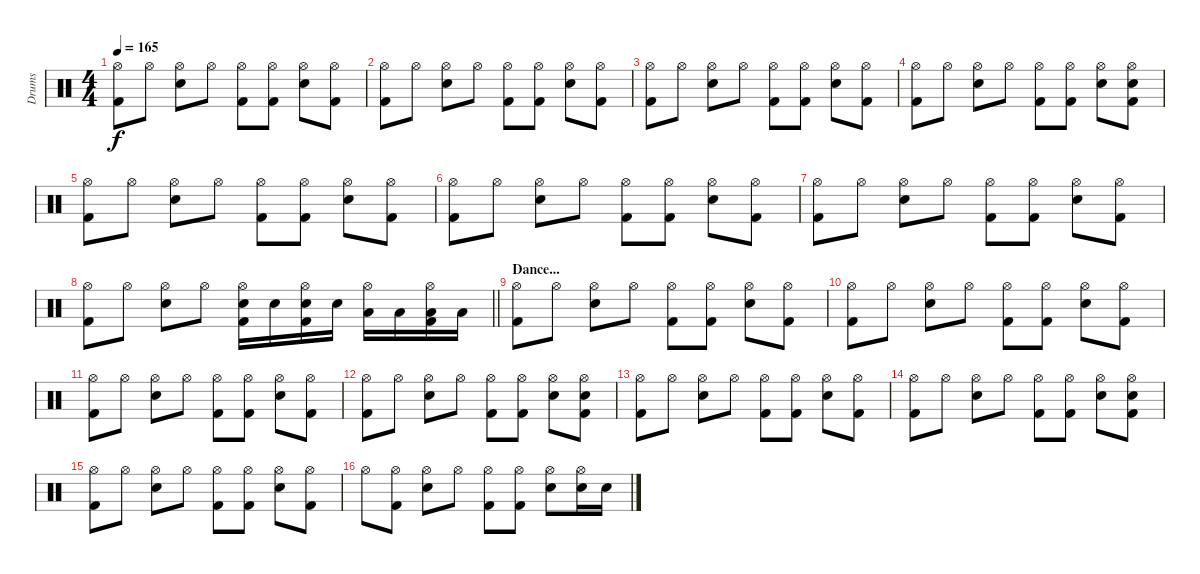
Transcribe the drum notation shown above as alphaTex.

\track ("Drums" "Drums") {instrument percussion}
\staff {score}
\articulation defaults
\ts (4 4)
\tempo 165
\clef neutral
\ks c
("Hi-Hat (open)" "Kick (hit) 2").8{dy f} "Hi-Hat (open)".8 ("Hi-Hat (open)" "Electric Snare (hit)").8 "Hi-Hat (open)".8 ("Hi-Hat (open)" "Kick (hit) 2").8 ("Hi-Hat (open)" "Kick (hit) 2").8 ("Hi-Hat (open)" "Electric Snare (hit)").8 ("Hi-Hat (open)" "Kick (hit) 2").8 |
("Hi-Hat (open)" "Kick (hit) 2").8 "Hi-Hat (open)".8 ("Hi-Hat (open)" "Electric Snare (hit)").8 "Hi-Hat (open)".8 ("Hi-Hat (open)" "Kick (hit) 2").8 ("Hi-Hat (open)" "Kick (hit) 2").8 ("Hi-Hat (open)" "Electric Snare (hit)").8 ("Hi-Hat (open)" "Kick (hit) 2").8 |
("Hi-Hat (open)" "Kick (hit) 2").8 "Hi-Hat (open)".8 ("Hi-Hat (open)" "Electric Snare (hit)").8 "Hi-Hat (open)".8 ("Hi-Hat (open)" "Kick (hit) 2").8 ("Hi-Hat (open)" "Kick (hit) 2").8 ("Hi-Hat (open)" "Electric Snare (hit)").8 ("Hi-Hat (open)" "Kick (hit) 2").8 |
("Hi-Hat (open)" "Kick (hit) 2").8 "Hi-Hat (open)".8 ("Hi-Hat (open)" "Electric Snare (hit)").8 "Hi-Hat (open)".8 ("Hi-Hat (open)" "Kick (hit) 2").8 ("Hi-Hat (open)" "Kick (hit) 2").8 ("Hi-Hat (open)" "Electric Snare (hit)").8 ("Hi-Hat (open)" "Electric Snare (hit)" "Kick (hit) 2").8 |
("Hi-Hat (open)" "Kick (hit) 2").8 "Hi-Hat (open)".8 ("Hi-Hat (open)" "Electric Snare (hit)").8 "Hi-Hat (open)".8 ("Hi-Hat (open)" "Kick (hit) 2").8 ("Hi-Hat (open)" "Kick (hit) 2").8 ("Hi-Hat (open)" "Electric Snare (hit)").8 ("Hi-Hat (open)" "Kick (hit) 2").8 |
("Hi-Hat (open)" "Kick (hit) 2").8 "Hi-Hat (open)".8 ("Hi-Hat (open)" "Electric Snare (hit)").8 "Hi-Hat (open)".8 ("Hi-Hat (open)" "Kick (hit) 2").8 ("Hi-Hat (open)" "Kick (hit) 2").8 ("Hi-Hat (open)" "Electric Snare (hit)").8 ("Hi-Hat (open)" "Kick (hit) 2").8 |
("Hi-Hat (open)" "Kick (hit) 2").8 "Hi-Hat (open)".8 ("Hi-Hat (open)" "Electric Snare (hit)").8 "Hi-Hat (open)".8 ("Hi-Hat (open)" "Kick (hit) 2").8 ("Hi-Hat (open)" "Kick (hit) 2").8 ("Hi-Hat (open)" "Electric Snare (hit)").8 ("Hi-Hat (open)" "Kick (hit) 2").8 |
\barLineRight lightlight
("Hi-Hat (open)" "Kick (hit) 2").8 "Hi-Hat (open)".8 ("Hi-Hat (open)" "Electric Snare (hit)").8 "Hi-Hat (open)".8 ("Hi-Hat (open)" "Electric Snare (hit)" "Kick (hit) 2").16 "Electric Snare (hit)".16 ("Hi-Hat (open)" "Electric Snare (hit)" "Kick (hit) 2").16 "Electric Snare (hit)".16 ("Hi-Hat (open)" "Low Floor Tom (hit)").16 "Low Floor Tom (hit)".16 ("Hi-Hat (open)" "Low Floor Tom (hit)" "Kick (hit) 2").16 "Low Floor Tom (hit)".16 |
\section ("" "Dance...")
("Hi-Hat (open)" "Kick (hit) 2").8 "Hi-Hat (open)".8 ("Hi-Hat (open)" "Electric Snare (hit)").8 "Hi-Hat (open)".8 ("Hi-Hat (open)" "Kick (hit) 2").8 ("Hi-Hat (open)" "Kick (hit) 2").8 ("Hi-Hat (open)" "Electric Snare (hit)").8 ("Hi-Hat (open)" "Kick (hit) 2").8 |
("Hi-Hat (open)" "Kick (hit) 2").8 "Hi-Hat (open)".8 ("Hi-Hat (open)" "Electric Snare (hit)").8 "Hi-Hat (open)".8 ("Hi-Hat (open)" "Kick (hit) 2").8 ("Hi-Hat (open)" "Kick (hit) 2").8 ("Hi-Hat (open)" "Electric Snare (hit)").8 ("Hi-Hat (open)" "Kick (hit) 2").8 |
("Hi-Hat (open)" "Kick (hit) 2").8 "Hi-Hat (open)".8 ("Hi-Hat (open)" "Electric Snare (hit)").8 "Hi-Hat (open)".8 ("Hi-Hat (open)" "Kick (hit) 2").8 ("Hi-Hat (open)" "Kick (hit) 2").8 ("Hi-Hat (open)" "Electric Snare (hit)").8 ("Hi-Hat (open)" "Kick (hit) 2").8 |
("Hi-Hat (open)" "Kick (hit) 2").8 "Hi-Hat (open)".8 ("Hi-Hat (open)" "Electric Snare (hit)").8 "Hi-Hat (open)".8 ("Hi-Hat (open)" "Kick (hit) 2").8 ("Hi-Hat (open)" "Kick (hit) 2").8 ("Hi-Hat (open)" "Electric Snare (hit)").8 ("Hi-Hat (open)" "Electric Snare (hit)" "Kick (hit) 2").8 |
("Hi-Hat (open)" "Kick (hit) 2").8 "Hi-Hat (open)".8 ("Hi-Hat (open)" "Electric Snare (hit)").8 "Hi-Hat (open)".8 ("Hi-Hat (open)" "Kick (hit) 2").8 ("Hi-Hat (open)" "Kick (hit) 2").8 ("Hi-Hat (open)" "Electric Snare (hit)").8 ("Hi-Hat (open)" "Kick (hit) 2").8 |
("Hi-Hat (open)" "Kick (hit) 2").8 "Hi-Hat (open)".8 ("Hi-Hat (open)" "Electric Snare (hit)").8 "Hi-Hat (open)".8 ("Hi-Hat (open)" "Kick (hit) 2").8 ("Hi-Hat (open)" "Kick (hit) 2").8 ("Hi-Hat (open)" "Electric Snare (hit)").8 ("Hi-Hat (open)" "Electric Snare (hit)" "Kick (hit) 2").8 |
("Hi-Hat (open)" "Kick (hit) 2").8 "Hi-Hat (open)".8 ("Hi-Hat (open)" "Electric Snare (hit)").8 "Hi-Hat (open)".8 ("Hi-Hat (open)" "Kick (hit) 2").8 ("Hi-Hat (open)" "Kick (hit) 2").8 ("Hi-Hat (open)" "Electric Snare (hit)").8 ("Hi-Hat (open)" "Kick (hit) 2").8 |
"Hi-Hat (open)".8 ("Hi-Hat (open)" "Kick (hit) 2").8 ("Hi-Hat (open)" "Electric Snare (hit)").8 "Hi-Hat (open)".8 ("Hi-Hat (open)" "Kick (hit) 2").8 ("Hi-Hat (open)" "Kick (hit) 2").8 ("Hi-Hat (open)" "Electric Snare (hit)").8 ("Hi-Hat (open)" "Electric Snare (hit)").16 "Electric Snare (hit)".16
